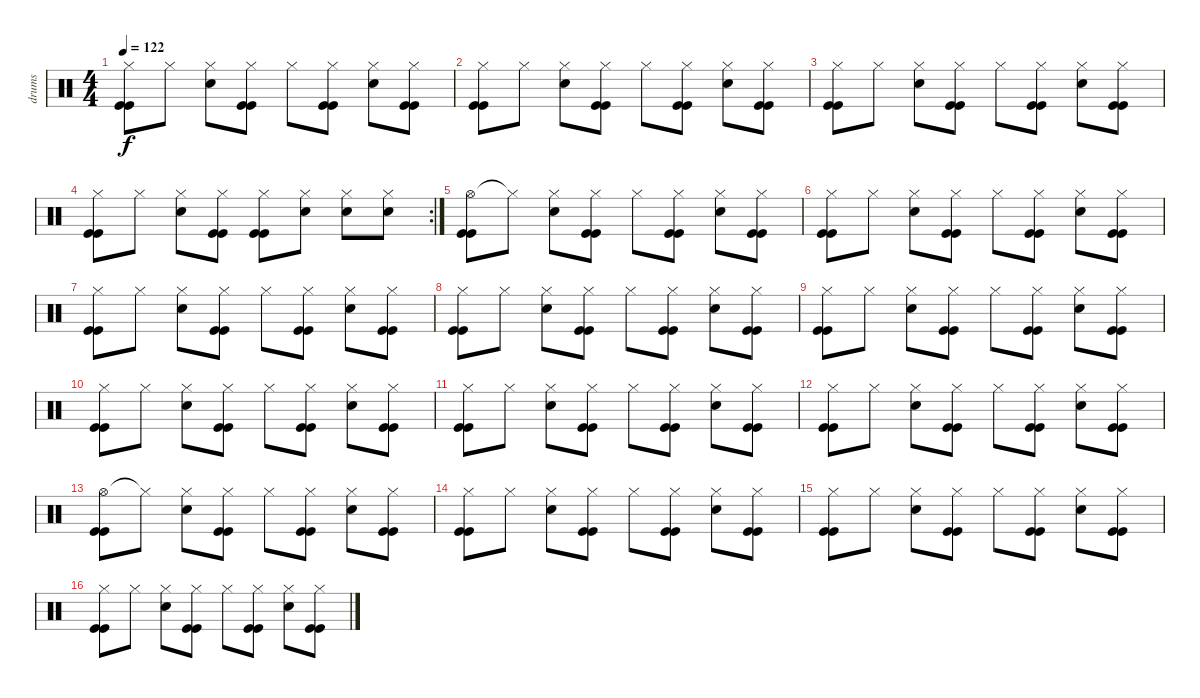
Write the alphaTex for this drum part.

\track ("drums" "drums") {instrument percussion}
\staff {score}
\articulation defaults
\ts (4 4)
\tempo 122
\clef neutral
\ks c
("Hi-Hat (closed)" "Kick (hit)" "Kick (hit)").8{dy f} "Hi-Hat (closed)".8 ("Hi-Hat (closed)" "Electric Snare (hit)").8 ("Hi-Hat (closed)" "Kick (hit)" "Kick (hit)").8 "Hi-Hat (closed)".8 ("Hi-Hat (closed)" "Kick (hit)" "Kick (hit)").8 ("Hi-Hat (closed)" "Electric Snare (hit)").8 ("Hi-Hat (closed)" "Kick (hit)" "Kick (hit)").8 |
("Hi-Hat (closed)" "Kick (hit)" "Kick (hit)").8 "Hi-Hat (closed)".8 ("Hi-Hat (closed)" "Electric Snare (hit)").8 ("Hi-Hat (closed)" "Kick (hit)" "Kick (hit)").8 "Hi-Hat (closed)".8 ("Hi-Hat (closed)" "Kick (hit)" "Kick (hit)").8 ("Hi-Hat (closed)" "Electric Snare (hit)").8 ("Hi-Hat (closed)" "Kick (hit)" "Kick (hit)").8 |
("Hi-Hat (closed)" "Kick (hit)" "Kick (hit)").8 "Hi-Hat (closed)".8 ("Hi-Hat (closed)" "Electric Snare (hit)").8 ("Hi-Hat (closed)" "Kick (hit)" "Kick (hit)").8 "Hi-Hat (closed)".8 ("Hi-Hat (closed)" "Kick (hit)" "Kick (hit)").8 ("Hi-Hat (closed)" "Electric Snare (hit)").8 ("Hi-Hat (closed)" "Kick (hit)" "Kick (hit)").8 |
\rc 2
("Hi-Hat (closed)" "Kick (hit)" "Kick (hit)").8 "Hi-Hat (closed)".8 ("Hi-Hat (closed)" "Electric Snare (hit)").8 ("Hi-Hat (closed)" "Kick (hit)" "Kick (hit)").8 ("Hi-Hat (closed)" "Kick (hit)" "Kick (hit)").8 ("Hi-Hat (closed)" "Electric Snare (hit)").8 ("Hi-Hat (closed)" "Electric Snare (hit)").8 ("Hi-Hat (closed)" "Electric Snare (hit)").8 |
("Hi-Hat (open)" "Kick (hit)" "Kick (hit)").8 "Hi-Hat (closed)"{t}.8 ("Hi-Hat (closed)" "Electric Snare (hit)").8 ("Hi-Hat (closed)" "Kick (hit)" "Kick (hit)").8 "Hi-Hat (closed)".8 ("Hi-Hat (closed)" "Kick (hit)" "Kick (hit)").8 ("Hi-Hat (closed)" "Electric Snare (hit)").8 ("Hi-Hat (closed)" "Kick (hit)" "Kick (hit)").8 |
("Hi-Hat (closed)" "Kick (hit)" "Kick (hit)").8 "Hi-Hat (closed)".8 ("Hi-Hat (closed)" "Electric Snare (hit)").8 ("Hi-Hat (closed)" "Kick (hit)" "Kick (hit)").8 "Hi-Hat (closed)".8 ("Hi-Hat (closed)" "Kick (hit)" "Kick (hit)").8 ("Hi-Hat (closed)" "Electric Snare (hit)").8 ("Hi-Hat (closed)" "Kick (hit)" "Kick (hit)").8 |
("Hi-Hat (closed)" "Kick (hit)" "Kick (hit)").8 "Hi-Hat (closed)".8 ("Hi-Hat (closed)" "Electric Snare (hit)").8 ("Hi-Hat (closed)" "Kick (hit)" "Kick (hit)").8 "Hi-Hat (closed)".8 ("Hi-Hat (closed)" "Kick (hit)" "Kick (hit)").8 ("Hi-Hat (closed)" "Electric Snare (hit)").8 ("Hi-Hat (closed)" "Kick (hit)" "Kick (hit)").8 |
("Hi-Hat (closed)" "Kick (hit)" "Kick (hit)").8 "Hi-Hat (closed)".8 ("Hi-Hat (closed)" "Electric Snare (hit)").8 ("Hi-Hat (closed)" "Kick (hit)" "Kick (hit)").8 "Hi-Hat (closed)".8 ("Hi-Hat (closed)" "Kick (hit)" "Kick (hit)").8 ("Hi-Hat (closed)" "Electric Snare (hit)").8 ("Hi-Hat (closed)" "Kick (hit)" "Kick (hit)").8 |
("Hi-Hat (closed)" "Kick (hit)" "Kick (hit)").8 "Hi-Hat (closed)".8 ("Hi-Hat (closed)" "Electric Snare (hit)").8 ("Hi-Hat (closed)" "Kick (hit)" "Kick (hit)").8 "Hi-Hat (closed)".8 ("Hi-Hat (closed)" "Kick (hit)" "Kick (hit)").8 ("Hi-Hat (closed)" "Electric Snare (hit)").8 ("Hi-Hat (closed)" "Kick (hit)" "Kick (hit)").8 |
("Hi-Hat (closed)" "Kick (hit)" "Kick (hit)").8 "Hi-Hat (closed)".8 ("Hi-Hat (closed)" "Electric Snare (hit)").8 ("Hi-Hat (closed)" "Kick (hit)" "Kick (hit)").8 "Hi-Hat (closed)".8 ("Hi-Hat (closed)" "Kick (hit)" "Kick (hit)").8 ("Hi-Hat (closed)" "Electric Snare (hit)").8 ("Hi-Hat (closed)" "Kick (hit)" "Kick (hit)").8 |
("Hi-Hat (closed)" "Kick (hit)" "Kick (hit)").8 "Hi-Hat (closed)".8 ("Hi-Hat (closed)" "Electric Snare (hit)").8 ("Hi-Hat (closed)" "Kick (hit)" "Kick (hit)").8 "Hi-Hat (closed)".8 ("Hi-Hat (closed)" "Kick (hit)" "Kick (hit)").8 ("Hi-Hat (closed)" "Electric Snare (hit)").8 ("Hi-Hat (closed)" "Kick (hit)" "Kick (hit)").8 |
("Hi-Hat (closed)" "Kick (hit)" "Kick (hit)").8 "Hi-Hat (closed)".8 ("Hi-Hat (closed)" "Electric Snare (hit)").8 ("Hi-Hat (closed)" "Kick (hit)" "Kick (hit)").8 "Hi-Hat (closed)".8 ("Hi-Hat (closed)" "Kick (hit)" "Kick (hit)").8 ("Hi-Hat (closed)" "Electric Snare (hit)").8 ("Hi-Hat (closed)" "Kick (hit)" "Kick (hit)").8 |
("Hi-Hat (open)" "Kick (hit)" "Kick (hit)").8 "Hi-Hat (closed)"{t}.8 ("Hi-Hat (closed)" "Electric Snare (hit)").8 ("Hi-Hat (closed)" "Kick (hit)" "Kick (hit)").8 "Hi-Hat (closed)".8 ("Hi-Hat (closed)" "Kick (hit)" "Kick (hit)").8 ("Hi-Hat (closed)" "Electric Snare (hit)").8 ("Hi-Hat (closed)" "Kick (hit)" "Kick (hit)").8 |
("Hi-Hat (closed)" "Kick (hit)" "Kick (hit)").8 "Hi-Hat (closed)".8 ("Hi-Hat (closed)" "Electric Snare (hit)").8 ("Hi-Hat (closed)" "Kick (hit)" "Kick (hit)").8 "Hi-Hat (closed)".8 ("Hi-Hat (closed)" "Kick (hit)" "Kick (hit)").8 ("Hi-Hat (closed)" "Electric Snare (hit)").8 ("Hi-Hat (closed)" "Kick (hit)" "Kick (hit)").8 |
("Hi-Hat (closed)" "Kick (hit)" "Kick (hit)").8 "Hi-Hat (closed)".8 ("Hi-Hat (closed)" "Electric Snare (hit)").8 ("Hi-Hat (closed)" "Kick (hit)" "Kick (hit)").8 "Hi-Hat (closed)".8 ("Hi-Hat (closed)" "Kick (hit)" "Kick (hit)").8 ("Hi-Hat (closed)" "Electric Snare (hit)").8 ("Hi-Hat (closed)" "Kick (hit)" "Kick (hit)").8 |
("Hi-Hat (closed)" "Kick (hit)" "Kick (hit)").8 "Hi-Hat (closed)".8 ("Hi-Hat (closed)" "Electric Snare (hit)").8 ("Hi-Hat (closed)" "Kick (hit)" "Kick (hit)").8 "Hi-Hat (closed)".8 ("Hi-Hat (closed)" "Kick (hit)" "Kick (hit)").8 ("Hi-Hat (closed)" "Electric Snare (hit)").8 ("Hi-Hat (closed)" "Kick (hit)" "Kick (hit)").8
